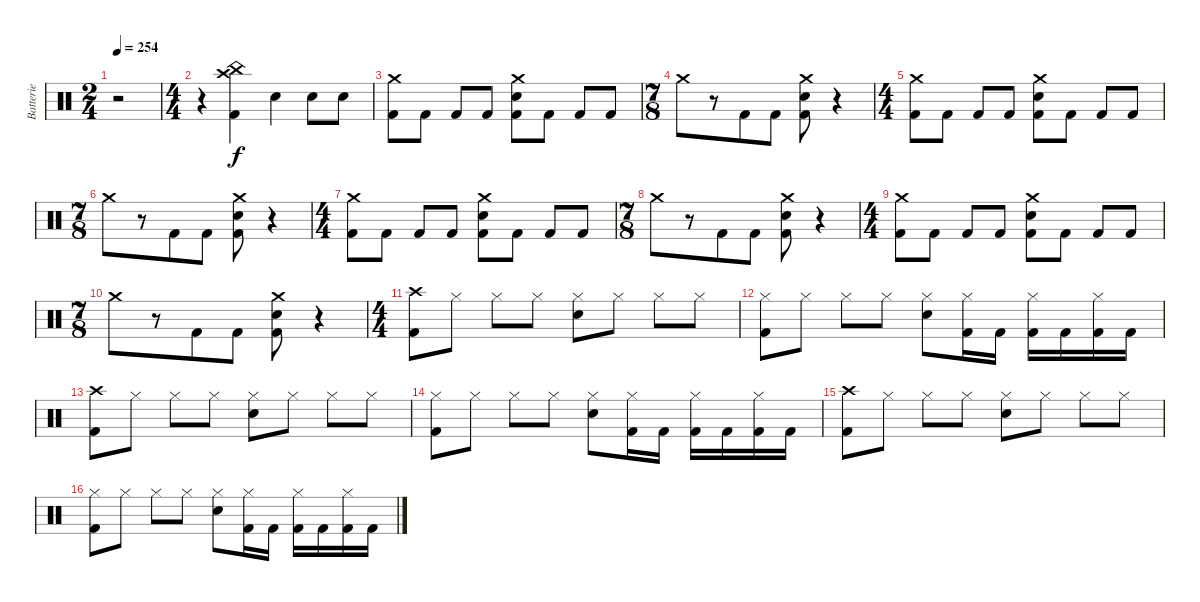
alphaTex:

\track ("Batterie" "Batterie") {instrument percussion}
\staff {score}
\articulation defaults
\ts (2 4)
\tempo 254
\clef neutral
\ks c
r.2{dy f} |
\ts (4 4)
r.4 ("China (hit)" "Crash high (hit)" "Kick (hit) 2").4 "Electric Snare (hit)".4 "Electric Snare (hit)".8 "Electric Snare (hit)".8 |
\section ("" "")
("Crash medium (hit)" "Kick (hit) 2").8 "Kick (hit) 2".8 "Kick (hit) 2".8 "Kick (hit) 2".8 ("Crash medium (hit)" "Electric Snare (hit)" "Kick (hit) 2").8 "Kick (hit) 2".8 "Kick (hit) 2".8 "Kick (hit) 2".8 |
\ts (7 8)
"Crash medium (hit)".8 r.8 "Kick (hit) 2".8 "Kick (hit) 2".8 ("Crash medium (hit)" "Electric Snare (hit)" "Kick (hit) 2").8 r.4 |
\ts (4 4)
("Crash medium (hit)" "Kick (hit) 2").8 "Kick (hit) 2".8 "Kick (hit) 2".8 "Kick (hit) 2".8 ("Crash medium (hit)" "Electric Snare (hit)" "Kick (hit) 2").8 "Kick (hit) 2".8 "Kick (hit) 2".8 "Kick (hit) 2".8 |
\ts (7 8)
"Crash medium (hit)".8 r.8 "Kick (hit) 2".8 "Kick (hit) 2".8 ("Crash medium (hit)" "Electric Snare (hit)" "Kick (hit) 2").8 r.4 |
\ts (4 4)
("Crash medium (hit)" "Kick (hit) 2").8 "Kick (hit) 2".8 "Kick (hit) 2".8 "Kick (hit) 2".8 ("Crash medium (hit)" "Electric Snare (hit)" "Kick (hit) 2").8 "Kick (hit) 2".8 "Kick (hit) 2".8 "Kick (hit) 2".8 |
\ts (7 8)
"Crash medium (hit)".8 r.8 "Kick (hit) 2".8 "Kick (hit) 2".8 ("Crash medium (hit)" "Electric Snare (hit)" "Kick (hit) 2").8 r.4 |
\ts (4 4)
("Crash medium (hit)" "Kick (hit) 2").8 "Kick (hit) 2".8 "Kick (hit) 2".8 "Kick (hit) 2".8 ("Crash medium (hit)" "Electric Snare (hit)" "Kick (hit) 2").8 "Kick (hit) 2".8 "Kick (hit) 2".8 "Kick (hit) 2".8 |
\ts (7 8)
"Crash medium (hit)".8 r.8 "Kick (hit) 2".8 "Kick (hit) 2".8 ("Crash medium (hit)" "Electric Snare (hit)" "Kick (hit) 2").8 r.4 |
\ts (4 4)
\section ("" "")
("Crash high (hit)" "Kick (hit) 2").8 "Hi-Hat (closed)".8 "Hi-Hat (closed)".8 "Hi-Hat (closed)".8 ("Hi-Hat (closed)" "Electric Snare (hit)").8 "Hi-Hat (closed)".8 "Hi-Hat (closed)".8 "Hi-Hat (closed)".8 |
("Hi-Hat (closed)" "Kick (hit) 2").8 "Hi-Hat (closed)".8 "Hi-Hat (closed)".8 "Hi-Hat (closed)".8 ("Hi-Hat (closed)" "Electric Snare (hit)").8 ("Hi-Hat (closed)" "Kick (hit) 2").16 "Kick (hit) 2".16 ("Hi-Hat (closed)" "Kick (hit) 2").16 "Kick (hit) 2".16 ("Hi-Hat (closed)" "Kick (hit) 2").16 "Kick (hit) 2".16 |
("Crash high (hit)" "Kick (hit) 2").8 "Hi-Hat (closed)".8 "Hi-Hat (closed)".8 "Hi-Hat (closed)".8 ("Hi-Hat (closed)" "Electric Snare (hit)").8 "Hi-Hat (closed)".8 "Hi-Hat (closed)".8 "Hi-Hat (closed)".8 |
("Hi-Hat (closed)" "Kick (hit) 2").8 "Hi-Hat (closed)".8 "Hi-Hat (closed)".8 "Hi-Hat (closed)".8 ("Hi-Hat (closed)" "Electric Snare (hit)").8 ("Hi-Hat (closed)" "Kick (hit) 2").16 "Kick (hit) 2".16 ("Hi-Hat (closed)" "Kick (hit) 2").16 "Kick (hit) 2".16 ("Hi-Hat (closed)" "Kick (hit) 2").16 "Kick (hit) 2".16 |
("Crash high (hit)" "Kick (hit) 2").8 "Hi-Hat (closed)".8 "Hi-Hat (closed)".8 "Hi-Hat (closed)".8 ("Hi-Hat (closed)" "Electric Snare (hit)").8 "Hi-Hat (closed)".8 "Hi-Hat (closed)".8 "Hi-Hat (closed)".8 |
("Hi-Hat (closed)" "Kick (hit) 2").8 "Hi-Hat (closed)".8 "Hi-Hat (closed)".8 "Hi-Hat (closed)".8 ("Hi-Hat (closed)" "Electric Snare (hit)").8 ("Hi-Hat (closed)" "Kick (hit) 2").16 "Kick (hit) 2".16 ("Hi-Hat (closed)" "Kick (hit) 2").16 "Kick (hit) 2".16 ("Hi-Hat (closed)" "Kick (hit) 2").16 "Kick (hit) 2".16
